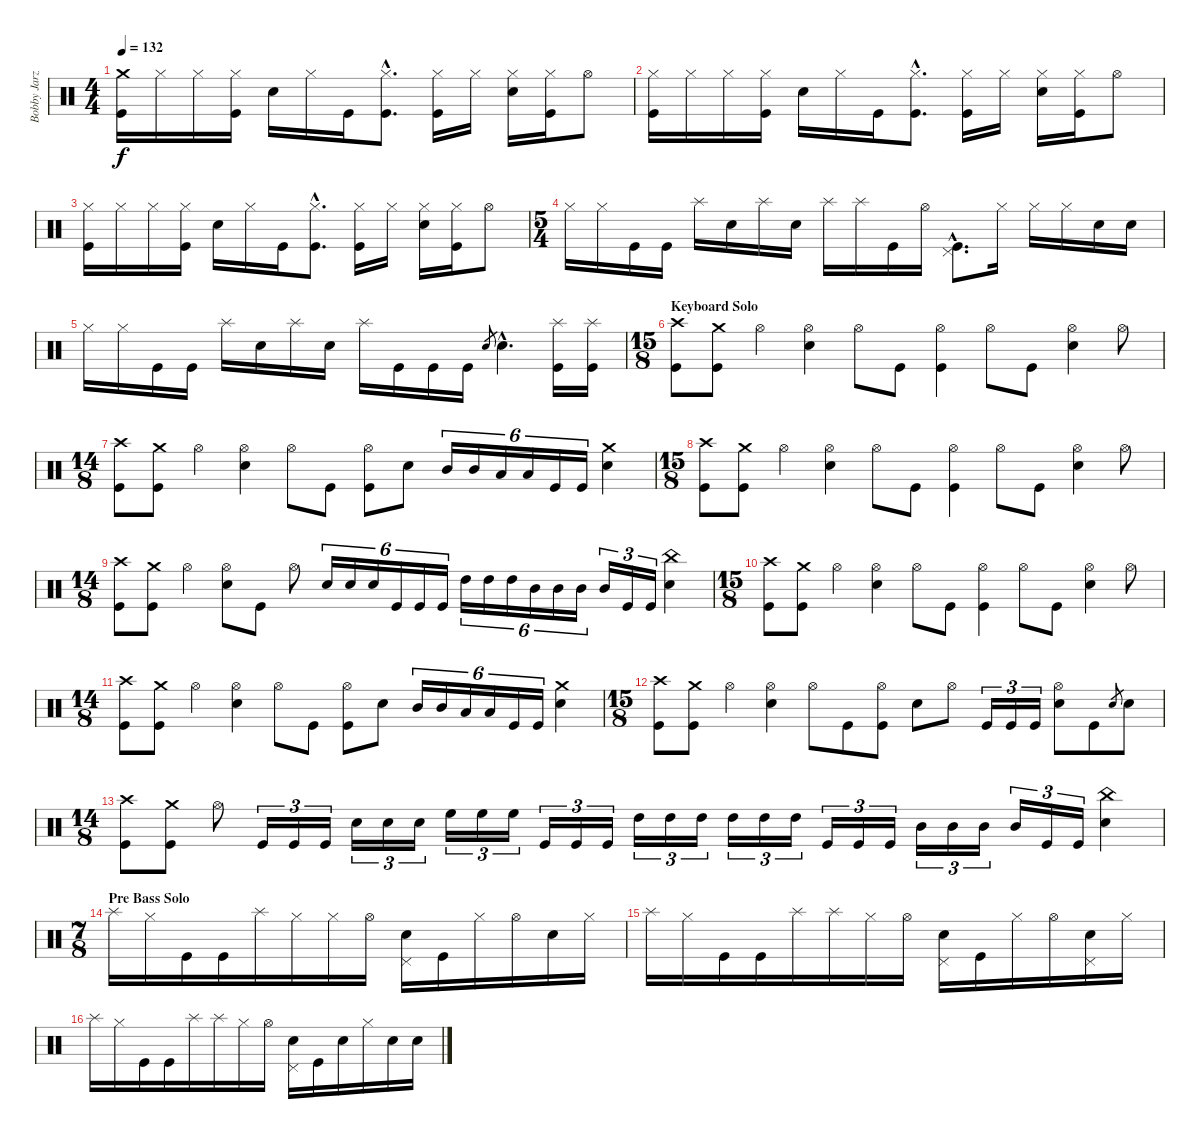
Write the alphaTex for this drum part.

\track ("Bobby Jarzombek" "Bobby Jarz") {instrument percussion}
\staff {score}
\articulation defaults
\ts (4 4)
\tempo 132
\clef neutral
\ks c
("Crash medium (hit)" "Kick (hit)").16{dy f} "Hi-Hat (closed)".16 "Hi-Hat (closed)".16 ("Hi-Hat (closed)" "Kick (hit)").16 "Electric Snare (hit)".16 "Hi-Hat (closed)".16 "Kick (hit)".16 ("Hi-Hat (closed)"{hac} "Kick (hit)"{hac}).8{d} ("Hi-Hat (closed)" "Kick (hit)").16 "Hi-Hat (closed)".16 ("Hi-Hat (closed)" "Electric Snare (hit)").16 ("Hi-Hat (closed)" "Kick (hit)").16 "Hi-Hat (open)".8 |
("Hi-Hat (closed)" "Kick (hit)").16 "Hi-Hat (closed)".16 "Hi-Hat (closed)".16 ("Hi-Hat (closed)" "Kick (hit)").16 "Electric Snare (hit)".16 "Hi-Hat (closed)".16 "Kick (hit)".16 ("Hi-Hat (closed)"{hac} "Kick (hit)"{hac}).8{d} ("Hi-Hat (closed)" "Kick (hit)").16 "Hi-Hat (closed)".16 ("Hi-Hat (closed)" "Electric Snare (hit)").16 ("Hi-Hat (closed)" "Kick (hit)").16 "Hi-Hat (open)".8 |
("Hi-Hat (closed)" "Kick (hit)").16 "Hi-Hat (closed)".16 "Hi-Hat (closed)".16 ("Hi-Hat (closed)" "Kick (hit)").16 "Electric Snare (hit)".16 "Hi-Hat (closed)".16 "Kick (hit)".16 ("Hi-Hat (closed)"{hac} "Kick (hit)"{hac}).8{d} ("Hi-Hat (closed)" "Kick (hit)").16 "Hi-Hat (closed)".16 ("Hi-Hat (closed)" "Electric Snare (hit)").16 ("Hi-Hat (closed)" "Kick (hit)").16 "Hi-Hat (open)".8 |
\ts (5 4)
"Hi-Hat (closed)".16 "Hi-Hat (closed)".16 "Kick (hit)".16 "Kick (hit)".16 "Splash (hit)".16 "Electric Snare (hit)".16 "Splash (hit)".16 "Electric Snare (hit)".16 "Splash (hit)".16 "Splash (hit)".16 "Kick (hit)".16 "Hi-Hat (open)".16 ("Pedal Hi-Hat (hit)"{hac} "Kick (hit)"{hac}).8{d} "Hi-Hat (closed)".16 "Hi-Hat (closed)".16 "Hi-Hat (closed)".16 "Electric Snare (hit)".16 "Electric Snare (hit)".16 |
"Hi-Hat (closed)".16 "Hi-Hat (closed)".16 "Kick (hit)".16 "Kick (hit)".16 "Splash (hit)".16 "Electric Snare (hit)".16 "Splash (hit)".16 "Electric Snare (hit)".16 "Splash (hit)".16 "Kick (hit)".16 "Kick (hit)".16 "Kick (hit)".16 "Electric Snare (hit)".8{gr} "Electric Snare (hit)"{hac}.4{d} ("Splash (hit)" "Kick (hit)").16 ("Splash (hit)" "Kick (hit)").16 |
\ts (15 8)
\section ("" "Keyboard Solo")
("Crash high (hit)" "Kick (hit)").8 ("Crash medium (hit)" "Kick (hit)").8 "Hi-Hat (open)".4 ("Hi-Hat (open)" "Electric Snare (hit)").4 "Hi-Hat (open)".8 "Kick (hit)".8 ("Hi-Hat (open)" "Kick (hit)").4 "Hi-Hat (open)".8 "Kick (hit)".8 ("Hi-Hat (open)" "Electric Snare (hit)").4 "Hi-Hat (open)".8 |
\ts (14 8)
("Crash high (hit)" "Kick (hit)").8 ("Crash medium (hit)" "Kick (hit)").8 "Hi-Hat (open)".4 ("Hi-Hat (open)" "Electric Snare (hit)").4 "Hi-Hat (open)".8 "Kick (hit)".8 ("Hi-Hat (open)" "Kick (hit)").8 "Electric Snare (hit)".8 "Mid Tom (hit)".16{tu (6 4)} "Mid Tom (hit)".16{tu (6 4)} "Low Tom (hit)".16{tu (6 4)} "Low Tom (hit)".16{tu (6 4)} "Kick (hit)".16{tu (6 4)} "Kick (hit)".16{tu (6 4)} ("Crash medium (hit)" "Electric Snare (hit)").4 |
\ts (15 8)
("Crash high (hit)" "Kick (hit)").8 ("Crash medium (hit)" "Kick (hit)").8 "Hi-Hat (open)".4 ("Hi-Hat (open)" "Electric Snare (hit)").4 "Hi-Hat (open)".8 "Kick (hit)".8 ("Hi-Hat (open)" "Kick (hit)").4 "Hi-Hat (open)".8 "Kick (hit)".8 ("Hi-Hat (open)" "Electric Snare (hit)").4 "Hi-Hat (open)".8 |
\ts (14 8)
("Crash high (hit)" "Kick (hit)").8 ("Crash medium (hit)" "Kick (hit)").8 "Hi-Hat (open)".4 ("Hi-Hat (open)" "Electric Snare (hit)").8 "Kick (hit)".8 "Hi-Hat (open)".8 "Electric Snare (hit)".16{tu (6 4)} "Electric Snare (hit)".16{tu (6 4)} "Electric Snare (hit)".16{tu (6 4)} "Kick (hit)".16{tu (6 4)} "Kick (hit)".16{tu (6 4)} "Kick (hit)".16{tu (6 4)} "High Tom (hit)".16{tu (6 4)} "High Tom (hit)".16{tu (6 4)} "High Tom (hit)".16{tu (6 4)} "Mid Tom (hit)".16{tu (6 4)} "Mid Tom (hit)".16{tu (6 4)} "Mid Tom (hit)".16{tu (6 4)} "Mid Tom (hit)".16{tu (3 2)} "Kick (hit)".16{tu (3 2)} "Kick (hit)".16{tu (3 2)} ("China (hit)" "Electric Snare (hit)").4 |
\ts (15 8)
("Crash high (hit)" "Kick (hit)").8 ("Crash medium (hit)" "Kick (hit)").8 "Hi-Hat (open)".4 ("Hi-Hat (open)" "Electric Snare (hit)").4 "Hi-Hat (open)".8 "Kick (hit)".8 ("Hi-Hat (open)" "Kick (hit)").4 "Hi-Hat (open)".8 "Kick (hit)".8 ("Hi-Hat (open)" "Electric Snare (hit)").4 "Hi-Hat (open)".8 |
\ts (14 8)
("Crash high (hit)" "Kick (hit)").8 ("Crash medium (hit)" "Kick (hit)").8 "Hi-Hat (open)".4 ("Hi-Hat (open)" "Electric Snare (hit)").4 "Hi-Hat (open)".8 "Kick (hit)".8 ("Hi-Hat (open)" "Kick (hit)").8 "Electric Snare (hit)".8 "Mid Tom (hit)".16{tu (6 4)} "Mid Tom (hit)".16{tu (6 4)} "Low Tom (hit)".16{tu (6 4)} "Low Tom (hit)".16{tu (6 4)} "Kick (hit)".16{tu (6 4)} "Kick (hit)".16{tu (6 4)} ("Crash medium (hit)" "Electric Snare (hit)").4 |
\ts (15 8)
("Crash high (hit)" "Kick (hit)").8 ("Crash medium (hit)" "Kick (hit)").8 "Hi-Hat (open)".4 ("Hi-Hat (open)" "Electric Snare (hit)").4 "Hi-Hat (open)".8 "Kick (hit)".8 ("Hi-Hat (open)" "Kick (hit)").8 "Electric Snare (hit)".8 "Hi-Hat (open)".8 "Kick (hit)".16{tu (3 2)} "Kick (hit)".16{tu (3 2)} "Kick (hit)".16{tu (3 2)} ("Hi-Hat (open)" "Electric Snare (hit)").8 "Kick (hit)".8 "Electric Snare (hit)".8{gr} "Electric Snare (hit)".8 |
\ts (14 8)
("Crash high (hit)" "Kick (hit)").8 ("Crash medium (hit)" "Kick (hit)").8 "Hi-Hat (open)".8 "Kick (hit)".16{tu (3 2)} "Kick (hit)".16{tu (3 2)} "Kick (hit)".16{tu (3 2)} "Electric Snare (hit)".16{tu (3 2)} "Electric Snare (hit)".16{tu (3 2)} "Electric Snare (hit)".16{tu (3 2)} "High Floor Tom (hit)".16{tu (3 2)} "High Floor Tom (hit)".16{tu (3 2)} "High Floor Tom (hit)".16{tu (3 2)} "Kick (hit)".16{tu (3 2)} "Kick (hit)".16{tu (3 2)} "Kick (hit)".16{tu (3 2)} "High Tom (hit)".16{tu (3 2)} "High Tom (hit)".16{tu (3 2)} "High Tom (hit)".16{tu (3 2)} "High Tom (hit)".16{tu (3 2)} "High Tom (hit)".16{tu (3 2)} "High Tom (hit)".16{tu (3 2)} "Kick (hit)".16{tu (3 2)} "Kick (hit)".16{tu (3 2)} "Kick (hit)".16{tu (3 2)} "Mid Tom (hit)".16{tu (3 2)} "Mid Tom (hit)".16{tu (3 2)} "Mid Tom (hit)".16{tu (3 2)} "Mid Tom (hit)".16{tu (3 2)} "Kick (hit)".16{tu (3 2)} "Kick (hit)".16{tu (3 2)} ("China (hit)" "Electric Snare (hit)").4 |
\ts (7 8)
\section ("" "Pre Bass Solo")
"Splash (hit)".16 "Hi-Hat (closed)".16 "Kick (hit)".16 "Kick (hit)".16 "Splash (hit)".16 "Hi-Hat (closed)".16 "Hi-Hat (closed)".16 "Hi-Hat (open)".16 ("Electric Snare (hit)" "Pedal Hi-Hat (hit)").16 "Kick (hit)".16 "Hi-Hat (closed)".16 "Hi-Hat (open)".16 "Electric Snare (hit)".16 "Hi-Hat (closed)".16 |
"Splash (hit)".16 "Hi-Hat (closed)".16 "Kick (hit)".16 "Kick (hit)".16 "Splash (hit)".16 "Splash (hit)".16 "Hi-Hat (closed)".16 "Hi-Hat (open)".16 ("Electric Snare (hit)" "Pedal Hi-Hat (hit)").16 "Kick (hit)".16 "Hi-Hat (closed)".16 "Hi-Hat (open)".16 ("Electric Snare (hit)" "Pedal Hi-Hat (hit)").16 "Hi-Hat (closed)".16 |
"Splash (hit)".16 "Hi-Hat (closed)".16 "Kick (hit)".16 "Kick (hit)".16 "Splash (hit)".16 "Splash (hit)".16 "Hi-Hat (closed)".16 "Hi-Hat (open)".16 ("Electric Snare (hit)" "Pedal Hi-Hat (hit)").16 "Kick (hit)".16 "Electric Snare (hit)".16 "Hi-Hat (closed)".16 "Electric Snare (hit)".16 "Electric Snare (hit)".16
